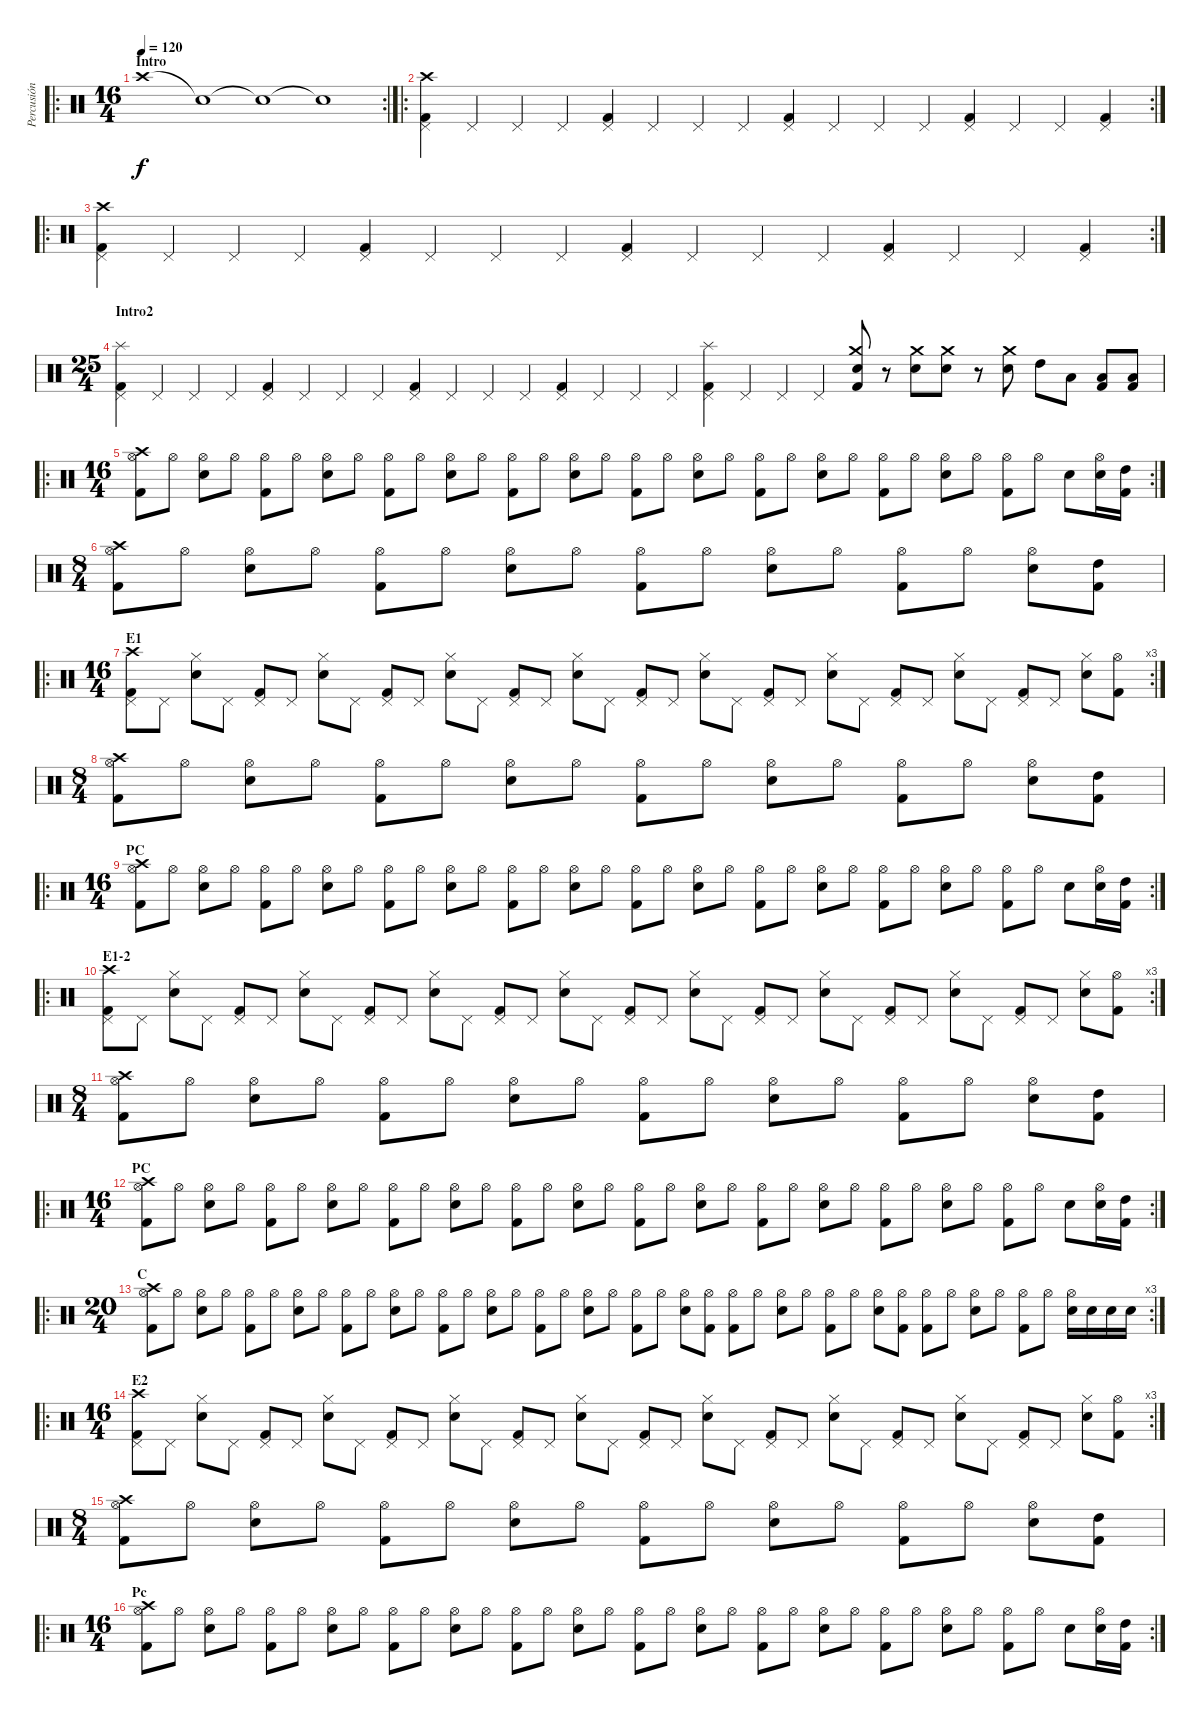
\track ("Percusión" "Percusión") {instrument percussion}
\staff {score}
\articulation defaults
\ro
\rc 2
\ts (16 4)
\section ("" "Intro")
\tempo 120
\clef neutral
\ks c "Crash high (hit)".1{dy f} "Snare (hit)"{t}.1 "Snare (hit)"{t}.1 "Snare (hit)"{t}.1
|
\ro
\rc 2
("Crash high (hit)" "Pedal Hi-Hat (hit)" "Kick (hit) 2").4 "Pedal Hi-Hat (hit)".4 "Pedal Hi-Hat (hit)".4 "Pedal Hi-Hat (hit)".4 ("Pedal Hi-Hat (hit)" "Kick (hit) 2").4 "Pedal Hi-Hat (hit)".4 "Pedal Hi-Hat (hit)".4 "Pedal Hi-Hat (hit)".4 ("Pedal Hi-Hat (hit)" "Kick (hit) 2").4 "Pedal Hi-Hat (hit)".4 "Pedal Hi-Hat (hit)".4 "Pedal Hi-Hat (hit)".4 ("Pedal Hi-Hat (hit)" "Kick (hit) 2").4 "Pedal Hi-Hat (hit)".4 "Pedal Hi-Hat (hit)".4 ("Pedal Hi-Hat (hit)" "Kick (hit) 2").4 |
\ro
\rc 2
("Crash high (hit)" "Pedal Hi-Hat (hit)" "Kick (hit) 2").4 "Pedal Hi-Hat (hit)".4 "Pedal Hi-Hat (hit)".4 "Pedal Hi-Hat (hit)".4 ("Pedal Hi-Hat (hit)" "Kick (hit) 2").4 "Pedal Hi-Hat (hit)".4 "Pedal Hi-Hat (hit)".4 "Pedal Hi-Hat (hit)".4 ("Pedal Hi-Hat (hit)" "Kick (hit) 2").4 "Pedal Hi-Hat (hit)".4 "Pedal Hi-Hat (hit)".4 "Pedal Hi-Hat (hit)".4 ("Pedal Hi-Hat (hit)" "Kick (hit) 2").4 "Pedal Hi-Hat (hit)".4 "Pedal Hi-Hat (hit)".4 ("Pedal Hi-Hat (hit)" "Kick (hit) 2").4 |
\ts (25 4)
\section ("" "Intro2")
("Splash (hit)" "Pedal Hi-Hat (hit)" "Kick (hit) 2").4 "Pedal Hi-Hat (hit)".4 "Pedal Hi-Hat (hit)".4 "Pedal Hi-Hat (hit)".4 ("Pedal Hi-Hat (hit)" "Kick (hit) 2").4 "Pedal Hi-Hat (hit)".4 "Pedal Hi-Hat (hit)".4 "Pedal Hi-Hat (hit)".4 ("Pedal Hi-Hat (hit)" "Kick (hit) 2").4 "Pedal Hi-Hat (hit)".4 "Pedal Hi-Hat (hit)".4 "Pedal Hi-Hat (hit)".4 ("Pedal Hi-Hat (hit)" "Kick (hit) 2").4 "Pedal Hi-Hat (hit)".4 "Pedal Hi-Hat (hit)".4 "Pedal Hi-Hat (hit)".4 ("Splash (hit)" "Pedal Hi-Hat (hit)" "Kick (hit) 2").4 "Pedal Hi-Hat (hit)".4 "Pedal Hi-Hat (hit)".4 "Pedal Hi-Hat (hit)".4 ("Crash medium (hit)" "Electric Snare (hit)" "Kick (hit) 2").8 r.8 ("Crash medium (hit)" "Electric Snare (hit)").8 ("Crash medium (hit)" "Electric Snare (hit)").8 r.8 ("Crash medium (hit)" "Electric Snare (hit)").8 "High Tom (hit)".8 "Low Tom (hit)".8 ("Low Floor Tom (hit)" "Kick (hit) 2").8 ("Low Floor Tom (hit)" "Kick (hit) 2").8 |
\ro
\rc 2
\ts (16 4)
("Crash high (hit)" "Hi-Hat (open)" "Kick (hit) 2").8 "Hi-Hat (open)".8 ("Hi-Hat (open)" "Electric Snare (hit)").8 "Hi-Hat (open)".8 ("Hi-Hat (open)" "Kick (hit) 2").8 "Hi-Hat (open)".8 ("Hi-Hat (open)" "Electric Snare (hit)").8 "Hi-Hat (open)".8 ("Hi-Hat (open)" "Kick (hit) 2").8 "Hi-Hat (open)".8 ("Hi-Hat (open)" "Electric Snare (hit)").8 "Hi-Hat (open)".8 ("Hi-Hat (open)" "Kick (hit) 2").8 "Hi-Hat (open)".8 ("Hi-Hat (open)" "Electric Snare (hit)").8 "Hi-Hat (open)".8 ("Hi-Hat (open)" "Kick (hit) 2").8 "Hi-Hat (open)".8 ("Hi-Hat (open)" "Electric Snare (hit)").8 "Hi-Hat (open)".8 ("Hi-Hat (open)" "Kick (hit) 2").8 "Hi-Hat (open)".8 ("Hi-Hat (open)" "Electric Snare (hit)").8 "Hi-Hat (open)".8 ("Hi-Hat (open)" "Kick (hit) 2").8 "Hi-Hat (open)".8 ("Hi-Hat (open)" "Electric Snare (hit)").8 "Hi-Hat (open)".8 ("Hi-Hat (open)" "Kick (hit) 2").8 "Hi-Hat (open)".8 "Electric Snare (hit)".8 ("Hi-Hat (open)" "Electric Snare (hit)").16 ("High Tom (hit)" "Kick (hit) 2").16 |
\ts (8 4)
("Crash high (hit)" "Hi-Hat (open)" "Kick (hit) 2").8 "Hi-Hat (open)".8 ("Hi-Hat (open)" "Electric Snare (hit)").8 "Hi-Hat (open)".8 ("Hi-Hat (open)" "Kick (hit) 2").8 "Hi-Hat (open)".8 ("Hi-Hat (open)" "Electric Snare (hit)").8 "Hi-Hat (open)".8 ("Hi-Hat (open)" "Kick (hit) 2").8 "Hi-Hat (open)".8 ("Hi-Hat (open)" "Electric Snare (hit)").8 "Hi-Hat (open)".8 ("Hi-Hat (open)" "Kick (hit) 2").8 "Hi-Hat (open)".8 ("Hi-Hat (open)" "Electric Snare (hit)").8 ("High Tom (hit)" "Kick (hit) 2").8 |
\ro
\rc 3
\ts (16 4)
\section ("" "E1")
("Crash high (hit)" "Pedal Hi-Hat (hit)" "Kick (hit) 2").8 "Pedal Hi-Hat (hit)".8 ("Hi-Hat (closed)" "Electric Snare (hit)").8 "Pedal Hi-Hat (hit)".8 ("Pedal Hi-Hat (hit)" "Kick (hit) 2").8 "Pedal Hi-Hat (hit)".8 ("Hi-Hat (closed)" "Electric Snare (hit)").8 "Pedal Hi-Hat (hit)".8 ("Pedal Hi-Hat (hit)" "Kick (hit) 2").8 "Pedal Hi-Hat (hit)".8 ("Hi-Hat (closed)" "Electric Snare (hit)").8 "Pedal Hi-Hat (hit)".8 ("Pedal Hi-Hat (hit)" "Kick (hit) 2").8 "Pedal Hi-Hat (hit)".8 ("Hi-Hat (closed)" "Electric Snare (hit)").8 "Pedal Hi-Hat (hit)".8 ("Pedal Hi-Hat (hit)" "Kick (hit) 2").8 "Pedal Hi-Hat (hit)".8 ("Hi-Hat (closed)" "Electric Snare (hit)").8 "Pedal Hi-Hat (hit)".8 ("Pedal Hi-Hat (hit)" "Kick (hit) 2").8 "Pedal Hi-Hat (hit)".8 ("Hi-Hat (closed)" "Electric Snare (hit)").8 "Pedal Hi-Hat (hit)".8 ("Pedal Hi-Hat (hit)" "Kick (hit) 2").8 "Pedal Hi-Hat (hit)".8 ("Hi-Hat (closed)" "Electric Snare (hit)").8 "Pedal Hi-Hat (hit)".8 ("Pedal Hi-Hat (hit)" "Kick (hit) 2").8 "Pedal Hi-Hat (hit)".8 ("Hi-Hat (closed)" "Electric Snare (hit)").8 ("Hi-Hat (open)" "Kick (hit) 2").8 |
\ts (8 4)
("Crash high (hit)" "Hi-Hat (open)" "Kick (hit) 2").8 "Hi-Hat (open)".8 ("Hi-Hat (open)" "Electric Snare (hit)").8 "Hi-Hat (open)".8 ("Hi-Hat (open)" "Kick (hit) 2").8 "Hi-Hat (open)".8 ("Hi-Hat (open)" "Electric Snare (hit)").8 "Hi-Hat (open)".8 ("Hi-Hat (open)" "Kick (hit) 2").8 "Hi-Hat (open)".8 ("Hi-Hat (open)" "Electric Snare (hit)").8 "Hi-Hat (open)".8 ("Hi-Hat (open)" "Kick (hit) 2").8 "Hi-Hat (open)".8 ("Hi-Hat (open)" "Electric Snare (hit)").8 ("High Tom (hit)" "Kick (hit) 2").8 |
\ro
\rc 2
\ts (16 4)
\section ("" "PC")
("Crash high (hit)" "Hi-Hat (open)" "Kick (hit) 2").8 "Hi-Hat (open)".8 ("Hi-Hat (open)" "Electric Snare (hit)").8 "Hi-Hat (open)".8 ("Hi-Hat (open)" "Kick (hit) 2").8 "Hi-Hat (open)".8 ("Hi-Hat (open)" "Electric Snare (hit)").8 "Hi-Hat (open)".8 ("Hi-Hat (open)" "Kick (hit) 2").8 "Hi-Hat (open)".8 ("Hi-Hat (open)" "Electric Snare (hit)").8 "Hi-Hat (open)".8 ("Hi-Hat (open)" "Kick (hit) 2").8 "Hi-Hat (open)".8 ("Hi-Hat (open)" "Electric Snare (hit)").8 "Hi-Hat (open)".8 ("Hi-Hat (open)" "Kick (hit) 2").8 "Hi-Hat (open)".8 ("Hi-Hat (open)" "Electric Snare (hit)").8 "Hi-Hat (open)".8 ("Hi-Hat (open)" "Kick (hit) 2").8 "Hi-Hat (open)".8 ("Hi-Hat (open)" "Electric Snare (hit)").8 "Hi-Hat (open)".8 ("Hi-Hat (open)" "Kick (hit) 2").8 "Hi-Hat (open)".8 ("Hi-Hat (open)" "Electric Snare (hit)").8 "Hi-Hat (open)".8 ("Hi-Hat (open)" "Kick (hit) 2").8 "Hi-Hat (open)".8 "Electric Snare (hit)".8 ("Hi-Hat (open)" "Electric Snare (hit)").16 ("High Tom (hit)" "Kick (hit) 2").16 |
\ro
\rc 3
\section ("" "E1-2")
("Crash high (hit)" "Pedal Hi-Hat (hit)" "Kick (hit) 2").8 "Pedal Hi-Hat (hit)".8 ("Hi-Hat (closed)" "Electric Snare (hit)").8 "Pedal Hi-Hat (hit)".8 ("Pedal Hi-Hat (hit)" "Kick (hit) 2").8 "Pedal Hi-Hat (hit)".8 ("Hi-Hat (closed)" "Electric Snare (hit)").8 "Pedal Hi-Hat (hit)".8 ("Pedal Hi-Hat (hit)" "Kick (hit) 2").8 "Pedal Hi-Hat (hit)".8 ("Hi-Hat (closed)" "Electric Snare (hit)").8 "Pedal Hi-Hat (hit)".8 ("Pedal Hi-Hat (hit)" "Kick (hit) 2").8 "Pedal Hi-Hat (hit)".8 ("Hi-Hat (closed)" "Electric Snare (hit)").8 "Pedal Hi-Hat (hit)".8 ("Pedal Hi-Hat (hit)" "Kick (hit) 2").8 "Pedal Hi-Hat (hit)".8 ("Hi-Hat (closed)" "Electric Snare (hit)").8 "Pedal Hi-Hat (hit)".8 ("Pedal Hi-Hat (hit)" "Kick (hit) 2").8 "Pedal Hi-Hat (hit)".8 ("Hi-Hat (closed)" "Electric Snare (hit)").8 "Pedal Hi-Hat (hit)".8 ("Pedal Hi-Hat (hit)" "Kick (hit) 2").8 "Pedal Hi-Hat (hit)".8 ("Hi-Hat (closed)" "Electric Snare (hit)").8 "Pedal Hi-Hat (hit)".8 ("Pedal Hi-Hat (hit)" "Kick (hit) 2").8 "Pedal Hi-Hat (hit)".8 ("Hi-Hat (closed)" "Electric Snare (hit)").8 ("Hi-Hat (open)" "Kick (hit) 2").8 |
\ts (8 4)
("Crash high (hit)" "Hi-Hat (open)" "Kick (hit) 2").8 "Hi-Hat (open)".8 ("Hi-Hat (open)" "Electric Snare (hit)").8 "Hi-Hat (open)".8 ("Hi-Hat (open)" "Kick (hit) 2").8 "Hi-Hat (open)".8 ("Hi-Hat (open)" "Electric Snare (hit)").8 "Hi-Hat (open)".8 ("Hi-Hat (open)" "Kick (hit) 2").8 "Hi-Hat (open)".8 ("Hi-Hat (open)" "Electric Snare (hit)").8 "Hi-Hat (open)".8 ("Hi-Hat (open)" "Kick (hit) 2").8 "Hi-Hat (open)".8 ("Hi-Hat (open)" "Electric Snare (hit)").8 ("High Tom (hit)" "Kick (hit) 2").8 |
\ro
\rc 2
\ts (16 4)
\section ("" "PC")
("Crash high (hit)" "Hi-Hat (open)" "Kick (hit) 2").8 "Hi-Hat (open)".8 ("Hi-Hat (open)" "Electric Snare (hit)").8 "Hi-Hat (open)".8 ("Hi-Hat (open)" "Kick (hit) 2").8 "Hi-Hat (open)".8 ("Hi-Hat (open)" "Electric Snare (hit)").8 "Hi-Hat (open)".8 ("Hi-Hat (open)" "Kick (hit) 2").8 "Hi-Hat (open)".8 ("Hi-Hat (open)" "Electric Snare (hit)").8 "Hi-Hat (open)".8 ("Hi-Hat (open)" "Kick (hit) 2").8 "Hi-Hat (open)".8 ("Hi-Hat (open)" "Electric Snare (hit)").8 "Hi-Hat (open)".8 ("Hi-Hat (open)" "Kick (hit) 2").8 "Hi-Hat (open)".8 ("Hi-Hat (open)" "Electric Snare (hit)").8 "Hi-Hat (open)".8 ("Hi-Hat (open)" "Kick (hit) 2").8 "Hi-Hat (open)".8 ("Hi-Hat (open)" "Electric Snare (hit)").8 "Hi-Hat (open)".8 ("Hi-Hat (open)" "Kick (hit) 2").8 "Hi-Hat (open)".8 ("Hi-Hat (open)" "Electric Snare (hit)").8 "Hi-Hat (open)".8 ("Hi-Hat (open)" "Kick (hit) 2").8 "Hi-Hat (open)".8 "Electric Snare (hit)".8 ("Hi-Hat (open)" "Electric Snare (hit)").16 ("High Tom (hit)" "Kick (hit) 2").16 |
\ro
\rc 3
\ts (20 4)
\section ("" "C")
("Crash high (hit)" "Hi-Hat (open)" "Kick (hit) 2").8 "Hi-Hat (open)".8 ("Hi-Hat (open)" "Electric Snare (hit)").8 "Hi-Hat (open)".8 ("Hi-Hat (open)" "Kick (hit) 2").8 "Hi-Hat (open)".8 ("Hi-Hat (open)" "Electric Snare (hit)").8 "Hi-Hat (open)".8 ("Hi-Hat (open)" "Kick (hit) 2").8 "Hi-Hat (open)".8 ("Hi-Hat (open)" "Electric Snare (hit)").8 "Hi-Hat (open)".8 ("Hi-Hat (open)" "Kick (hit) 2").8 "Hi-Hat (open)".8 ("Hi-Hat (open)" "Electric Snare (hit)").8 "Hi-Hat (open)".8 ("Hi-Hat (open)" "Kick (hit) 2").8 "Hi-Hat (open)".8 ("Hi-Hat (open)" "Electric Snare (hit)").8 "Hi-Hat (open)".8 ("Hi-Hat (open)" "Kick (hit) 2").8 "Hi-Hat (open)".8 ("Hi-Hat (open)" "Electric Snare (hit)").8 ("Hi-Hat (open)" "Kick (hit) 2").8 ("Hi-Hat (open)" "Kick (hit) 2").8 "Hi-Hat (open)".8 ("Hi-Hat (open)" "Electric Snare (hit)").8 "Hi-Hat (open)".8 ("Hi-Hat (open)" "Kick (hit) 2").8 "Hi-Hat (open)".8 ("Hi-Hat (open)" "Electric Snare (hit)").8 ("Hi-Hat (open)" "Kick (hit) 2").8 ("Hi-Hat (open)" "Kick (hit) 2").8 "Hi-Hat (open)".8 ("Hi-Hat (open)" "Electric Snare (hit)").8 "Hi-Hat (open)".8 ("Hi-Hat (open)" "Kick (hit) 2").8 "Hi-Hat (open)".8 ("Hi-Hat (open)" "Electric Snare (hit)").16 "Electric Snare (hit)".16 "Electric Snare (hit)".16 "Electric Snare (hit)".16 |
\ro
\rc 3
\ts (16 4)
\section ("" "E2")
("Crash high (hit)" "Pedal Hi-Hat (hit)" "Kick (hit) 2").8 "Pedal Hi-Hat (hit)".8 ("Hi-Hat (closed)" "Electric Snare (hit)").8 "Pedal Hi-Hat (hit)".8 ("Pedal Hi-Hat (hit)" "Kick (hit) 2").8 "Pedal Hi-Hat (hit)".8 ("Hi-Hat (closed)" "Electric Snare (hit)").8 "Pedal Hi-Hat (hit)".8 ("Pedal Hi-Hat (hit)" "Kick (hit) 2").8 "Pedal Hi-Hat (hit)".8 ("Hi-Hat (closed)" "Electric Snare (hit)").8 "Pedal Hi-Hat (hit)".8 ("Pedal Hi-Hat (hit)" "Kick (hit) 2").8 "Pedal Hi-Hat (hit)".8 ("Hi-Hat (closed)" "Electric Snare (hit)").8 "Pedal Hi-Hat (hit)".8 ("Pedal Hi-Hat (hit)" "Kick (hit) 2").8 "Pedal Hi-Hat (hit)".8 ("Hi-Hat (closed)" "Electric Snare (hit)").8 "Pedal Hi-Hat (hit)".8 ("Pedal Hi-Hat (hit)" "Kick (hit) 2").8 "Pedal Hi-Hat (hit)".8 ("Hi-Hat (closed)" "Electric Snare (hit)").8 "Pedal Hi-Hat (hit)".8 ("Pedal Hi-Hat (hit)" "Kick (hit) 2").8 "Pedal Hi-Hat (hit)".8 ("Hi-Hat (closed)" "Electric Snare (hit)").8 "Pedal Hi-Hat (hit)".8 ("Pedal Hi-Hat (hit)" "Kick (hit) 2").8 "Pedal Hi-Hat (hit)".8 ("Hi-Hat (closed)" "Electric Snare (hit)").8 ("Hi-Hat (open)" "Kick (hit) 2").8 |
\ts (8 4)
("Crash high (hit)" "Hi-Hat (open)" "Kick (hit) 2").8 "Hi-Hat (open)".8 ("Hi-Hat (open)" "Electric Snare (hit)").8 "Hi-Hat (open)".8 ("Hi-Hat (open)" "Kick (hit) 2").8 "Hi-Hat (open)".8 ("Hi-Hat (open)" "Electric Snare (hit)").8 "Hi-Hat (open)".8 ("Hi-Hat (open)" "Kick (hit) 2").8 "Hi-Hat (open)".8 ("Hi-Hat (open)" "Electric Snare (hit)").8 "Hi-Hat (open)".8 ("Hi-Hat (open)" "Kick (hit) 2").8 "Hi-Hat (open)".8 ("Hi-Hat (open)" "Electric Snare (hit)").8 ("High Tom (hit)" "Kick (hit) 2").8 |
\ro
\rc 2
\ts (16 4)
\section ("" "Pc")
("Crash high (hit)" "Hi-Hat (open)" "Kick (hit) 2").8 "Hi-Hat (open)".8 ("Hi-Hat (open)" "Electric Snare (hit)").8 "Hi-Hat (open)".8 ("Hi-Hat (open)" "Kick (hit) 2").8 "Hi-Hat (open)".8 ("Hi-Hat (open)" "Electric Snare (hit)").8 "Hi-Hat (open)".8 ("Hi-Hat (open)" "Kick (hit) 2").8 "Hi-Hat (open)".8 ("Hi-Hat (open)" "Electric Snare (hit)").8 "Hi-Hat (open)".8 ("Hi-Hat (open)" "Kick (hit) 2").8 "Hi-Hat (open)".8 ("Hi-Hat (open)" "Electric Snare (hit)").8 "Hi-Hat (open)".8 ("Hi-Hat (open)" "Kick (hit) 2").8 "Hi-Hat (open)".8 ("Hi-Hat (open)" "Electric Snare (hit)").8 "Hi-Hat (open)".8 ("Hi-Hat (open)" "Kick (hit) 2").8 "Hi-Hat (open)".8 ("Hi-Hat (open)" "Electric Snare (hit)").8 "Hi-Hat (open)".8 ("Hi-Hat (open)" "Kick (hit) 2").8 "Hi-Hat (open)".8 ("Hi-Hat (open)" "Electric Snare (hit)").8 "Hi-Hat (open)".8 ("Hi-Hat (open)" "Kick (hit) 2").8 "Hi-Hat (open)".8 "Electric Snare (hit)".8 ("Hi-Hat (open)" "Electric Snare (hit)").16 ("High Tom (hit)" "Kick (hit) 2").16
